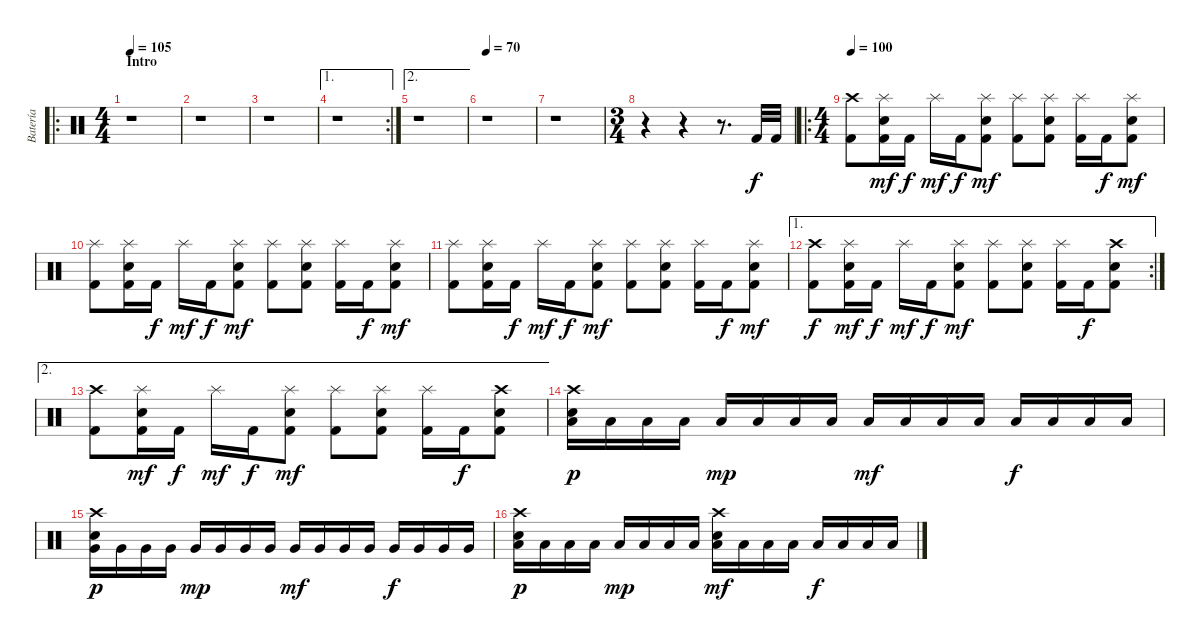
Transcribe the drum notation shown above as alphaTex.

\track ("Batería" "Batería") {instrument percussion}
\staff {score}
\articulation defaults
\ro
\ts (4 4)
\section ("" "Intro")
\tempo 105
\tempo 96
\tempo 105
\clef neutral
\ks c
r.1{dy f} |
r.1 |
r.1 |
\ae 1
\rc 2
r.1 |
\ae 2
r.1 |
\tempo 70
r.1 |
r.1 |
\ts (3 4)
r.4 r.4 r.8{d} "Kick (hit) 2".32 "Kick (hit) 2".32 |
\ro
\ts (4 4)
\tempo 100
("Crash high (hit)" "Kick (hit) 2").8 ("Splash (hit)" "Snare (hit) 2" "Kick (hit) 2").16{dy mf} "Kick (hit) 2".16{dy f} "Splash (hit)".16{dy mf} "Kick (hit) 2".16{dy f} ("Splash (hit)" "Snare (hit) 2" "Kick (hit) 2").8{dy mf} ("Splash (hit)" "Kick (hit) 2").8 ("Splash (hit)" "Snare (hit) 2" "Kick (hit) 2").8 ("Splash (hit)" "Kick (hit) 2").16 "Kick (hit) 2".16{dy f} ("Splash (hit)" "Snare (hit) 2" "Kick (hit) 2").8{dy mf} |
("Splash (hit)" "Kick (hit) 2").8 ("Splash (hit)" "Snare (hit) 2" "Kick (hit) 2").16 "Kick (hit) 2".16{dy f} "Splash (hit)".16{dy mf} "Kick (hit) 2".16{dy f} ("Splash (hit)" "Snare (hit) 2" "Kick (hit) 2").8{dy mf} ("Splash (hit)" "Kick (hit) 2").8 ("Splash (hit)" "Snare (hit) 2" "Kick (hit) 2").8 ("Splash (hit)" "Kick (hit) 2").16 "Kick (hit) 2".16{dy f} ("Splash (hit)" "Snare (hit) 2" "Kick (hit) 2").8{dy mf} |
("Splash (hit)" "Kick (hit) 2").8 ("Splash (hit)" "Snare (hit) 2" "Kick (hit) 2").16 "Kick (hit) 2".16{dy f} "Splash (hit)".16{dy mf} "Kick (hit) 2".16{dy f} ("Splash (hit)" "Snare (hit) 2" "Kick (hit) 2").8{dy mf} ("Splash (hit)" "Kick (hit) 2").8 ("Splash (hit)" "Snare (hit) 2" "Kick (hit) 2").8 ("Splash (hit)" "Kick (hit) 2").16 "Kick (hit) 2".16{dy f} ("Splash (hit)" "Snare (hit) 2" "Kick (hit) 2").8{dy mf} |
\ae 1
\rc 2
("Crash high (hit)" "Kick (hit) 2").8{dy f} ("Splash (hit)" "Snare (hit) 2" "Kick (hit) 2").16{dy mf} "Kick (hit) 2".16{dy f} "Splash (hit)".16{dy mf} "Kick (hit) 2".16{dy f} ("Splash (hit)" "Snare (hit) 2" "Kick (hit) 2").8{dy mf} ("Splash (hit)" "Kick (hit) 2").8 ("Splash (hit)" "Snare (hit) 2" "Kick (hit) 2").8 ("Splash (hit)" "Kick (hit) 2").16 "Kick (hit) 2".16{dy f} ("Crash high (hit)" "Snare (hit) 2" "Kick (hit) 2").8 |
\ae 2
("Crash high (hit)" "Kick (hit) 2").8 ("Splash (hit)" "Snare (hit) 2" "Kick (hit) 2").16{dy mf} "Kick (hit) 2".16{dy f} "Splash (hit)".16{dy mf} "Kick (hit) 2".16{dy f} ("Splash (hit)" "Snare (hit) 2" "Kick (hit) 2").8{dy mf} ("Splash (hit)" "Kick (hit) 2").8 ("Splash (hit)" "Snare (hit) 2" "Kick (hit) 2").8 ("Splash (hit)" "Kick (hit) 2").16 "Kick (hit) 2".16{dy f} ("Crash high (hit)" "Snare (hit) 2" "Kick (hit) 2").8 |
("Crash high (hit)" "Snare (hit) 2" "Low Floor Tom (hit)").16{dy p} "Low Floor Tom (hit)".16 "Low Floor Tom (hit)".16 "Low Floor Tom (hit)".16 "Low Floor Tom (hit)".16{dy mp} "Low Floor Tom (hit)".16 "Low Floor Tom (hit)".16 "Low Floor Tom (hit)".16 "Low Floor Tom (hit)".16{dy mf} "Low Floor Tom (hit)".16 "Low Floor Tom (hit)".16 "Low Floor Tom (hit)".16 "Low Floor Tom (hit)".16{dy f} "Low Floor Tom (hit)".16 "Low Floor Tom (hit)".16 "Low Floor Tom (hit)".16 |
("Crash high (hit)" "Snare (hit) 2" "Very Low Tom (hit)").16{dy p} "Very Low Tom (hit)".16 "Very Low Tom (hit)".16 "Very Low Tom (hit)".16 "Very Low Tom (hit)".16{dy mp} "Very Low Tom (hit)".16 "Very Low Tom (hit)".16 "Very Low Tom (hit)".16 "Very Low Tom (hit)".16{dy mf} "Very Low Tom (hit)".16 "Very Low Tom (hit)".16 "Very Low Tom (hit)".16 "Very Low Tom (hit)".16{dy f} "Very Low Tom (hit)".16 "Very Low Tom (hit)".16 "Very Low Tom (hit)".16 |
("Crash high (hit)" "Snare (hit) 2" "Low Tom (hit)").16{dy p} "Low Tom (hit)".16 "Low Tom (hit)".16 "Low Tom (hit)".16 "Low Tom (hit)".16{dy mp} "Low Tom (hit)".16 "Low Tom (hit)".16 "Low Tom (hit)".16 ("Crash high (hit)" "Snare (hit) 2" "Low Tom (hit)").16{dy mf} "Low Tom (hit)".16 "Low Tom (hit)".16 "Low Tom (hit)".16 "Low Tom (hit)".16{dy f} "Low Tom (hit)".16 "Low Tom (hit)".16 "Low Tom (hit)".16
